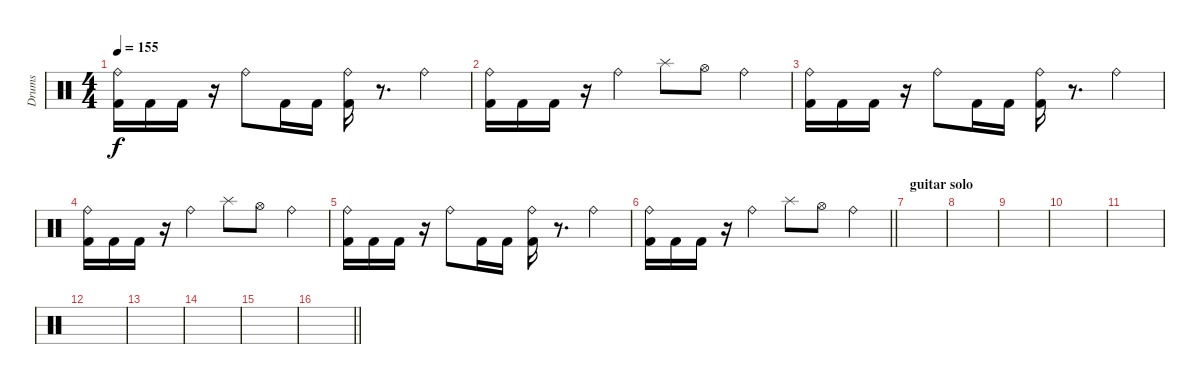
\track ("Drums" "Drums") {instrument percussion}
\staff {score}
\articulation defaults
\ts (4 4)
\tempo 155
\clef neutral
\ks aminor
("Kick (hit) 2" "Ride (bell)").16{dy f} "Kick (hit) 2".16 "Kick (hit) 2".16 r.16 "Ride (bell)".8 "Kick (hit) 2".16 "Kick (hit) 2".16 ("Kick (hit) 2" "Ride (bell)").16 r.8{d} "Ride (bell)".4 |
("Kick (hit) 2" "Ride (bell)").16 "Kick (hit) 2".16 "Kick (hit) 2".16 r.16 "Ride (bell)".4 "Splash (hit)".8 "Hi-Hat (open)".8 "Ride (bell)".4 |
("Kick (hit) 2" "Ride (bell)").16 "Kick (hit) 2".16 "Kick (hit) 2".16 r.16 "Ride (bell)".8 "Kick (hit) 2".16 "Kick (hit) 2".16 ("Kick (hit) 2" "Ride (bell)").16 r.8{d} "Ride (bell)".4 |
("Kick (hit) 2" "Ride (bell)").16 "Kick (hit) 2".16 "Kick (hit) 2".16 r.16 "Ride (bell)".4 "Splash (hit)".8 "Hi-Hat (open)".8 "Ride (bell)".4 |
("Kick (hit) 2" "Ride (bell)").16 "Kick (hit) 2".16 "Kick (hit) 2".16 r.16 "Ride (bell)".8 "Kick (hit) 2".16 "Kick (hit) 2".16 ("Kick (hit) 2" "Ride (bell)").16 r.8{d} "Ride (bell)".4 |
\barLineRight lightlight
("Kick (hit) 2" "Ride (bell)").16 "Kick (hit) 2".16 "Kick (hit) 2".16 r.16 "Ride (bell)".4 "Splash (hit)".8 "Hi-Hat (open)".8 "Ride (bell)".4 |
\section ("" "guitar solo")
|
|
|
|
|
|
|
|
|
\barLineRight lightlight
